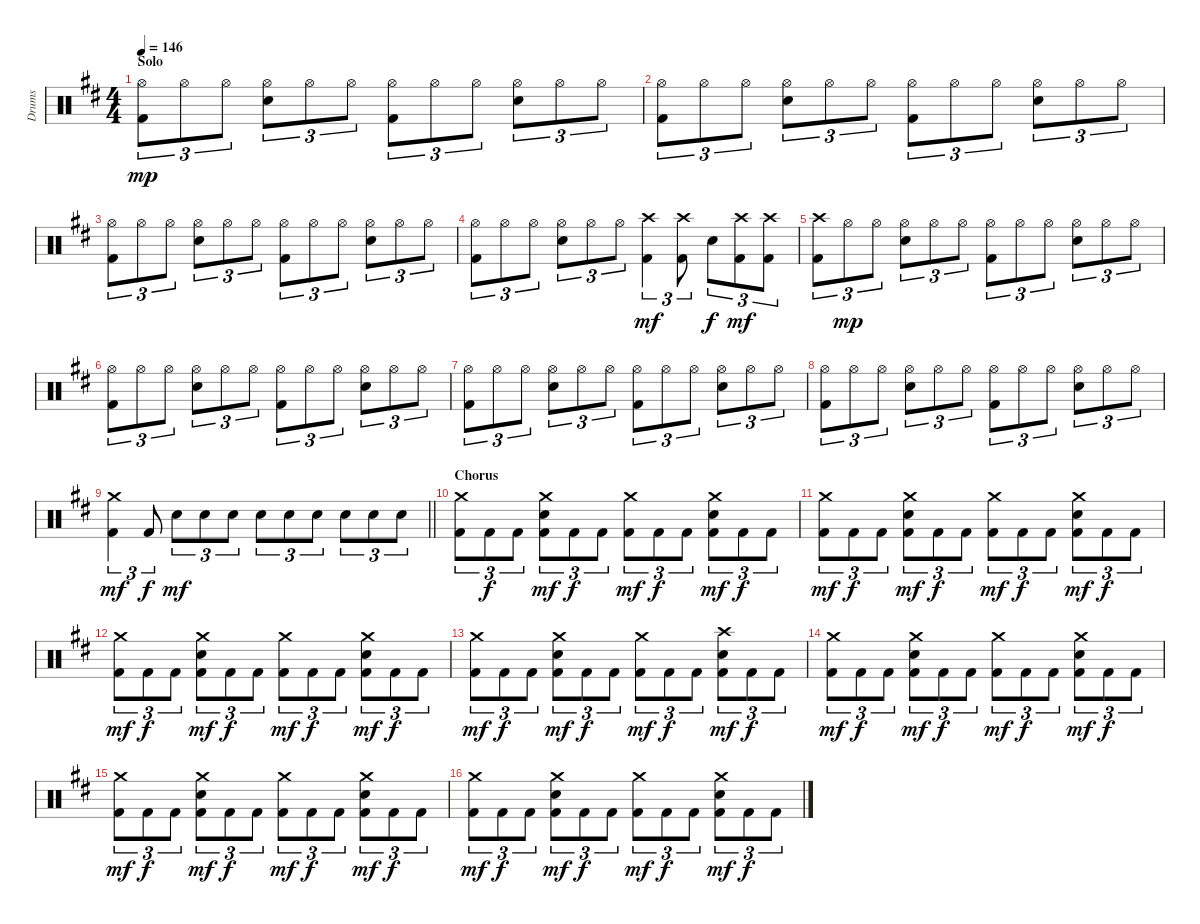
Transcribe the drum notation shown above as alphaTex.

\track ("Drums" "Drums") {instrument percussion}
\staff {score}
\articulation defaults
\ts (4 4)
\section ("" "Solo")
\tempo 146
\clef neutral
\ks bminor
("Hi-Hat (open)" "Kick (hit) 2").8{tu (3 2) dy mp} "Hi-Hat (open)".8{tu (3 2)} "Hi-Hat (open)".8{tu (3 2)} ("Hi-Hat (open)" "Electric Snare (hit)").8{tu (3 2)} "Hi-Hat (open)".8{tu (3 2)} "Hi-Hat (open)".8{tu (3 2)} ("Hi-Hat (open)" "Kick (hit) 2").8{tu (3 2)} "Hi-Hat (open)".8{tu (3 2)} "Hi-Hat (open)".8{tu (3 2)} ("Hi-Hat (open)" "Electric Snare (hit)").8{tu (3 2)} "Hi-Hat (open)".8{tu (3 2)} "Hi-Hat (open)".8{tu (3 2)} |
("Hi-Hat (open)" "Kick (hit) 2").8{tu (3 2)} "Hi-Hat (open)".8{tu (3 2)} "Hi-Hat (open)".8{tu (3 2)} ("Hi-Hat (open)" "Electric Snare (hit)").8{tu (3 2)} "Hi-Hat (open)".8{tu (3 2)} "Hi-Hat (open)".8{tu (3 2)} ("Hi-Hat (open)" "Kick (hit) 2").8{tu (3 2)} "Hi-Hat (open)".8{tu (3 2)} "Hi-Hat (open)".8{tu (3 2)} ("Hi-Hat (open)" "Electric Snare (hit)").8{tu (3 2)} "Hi-Hat (open)".8{tu (3 2)} "Hi-Hat (open)".8{tu (3 2)} |
("Hi-Hat (open)" "Kick (hit) 2").8{tu (3 2)} "Hi-Hat (open)".8{tu (3 2)} "Hi-Hat (open)".8{tu (3 2)} ("Hi-Hat (open)" "Electric Snare (hit)").8{tu (3 2)} "Hi-Hat (open)".8{tu (3 2)} "Hi-Hat (open)".8{tu (3 2)} ("Hi-Hat (open)" "Kick (hit) 2").8{tu (3 2)} "Hi-Hat (open)".8{tu (3 2)} "Hi-Hat (open)".8{tu (3 2)} ("Hi-Hat (open)" "Electric Snare (hit)").8{tu (3 2)} "Hi-Hat (open)".8{tu (3 2)} "Hi-Hat (open)".8{tu (3 2)} |
("Hi-Hat (open)" "Kick (hit) 2").8{tu (3 2)} "Hi-Hat (open)".8{tu (3 2)} "Hi-Hat (open)".8{tu (3 2)} ("Hi-Hat (open)" "Electric Snare (hit)").8{tu (3 2)} "Hi-Hat (open)".8{tu (3 2)} "Hi-Hat (open)".8{tu (3 2)} ("Crash high (hit)" "Kick (hit) 2").4{tu (3 2) dy mf} ("Crash high (hit)" "Kick (hit) 2").8{tu (3 2)} "Electric Snare (hit)".8{tu (3 2) dy f} ("Crash high (hit)" "Kick (hit) 2").8{tu (3 2) dy mf} ("Crash high (hit)" "Kick (hit) 2").8{tu (3 2)} |
("Crash high (hit)" "Kick (hit) 2").8{tu (3 2)} "Hi-Hat (open)".8{tu (3 2) dy mp} "Hi-Hat (open)".8{tu (3 2)} ("Hi-Hat (open)" "Electric Snare (hit)").8{tu (3 2)} "Hi-Hat (open)".8{tu (3 2)} "Hi-Hat (open)".8{tu (3 2)} ("Hi-Hat (open)" "Kick (hit) 2").8{tu (3 2)} "Hi-Hat (open)".8{tu (3 2)} "Hi-Hat (open)".8{tu (3 2)} ("Hi-Hat (open)" "Electric Snare (hit)").8{tu (3 2)} "Hi-Hat (open)".8{tu (3 2)} "Hi-Hat (open)".8{tu (3 2)} |
("Hi-Hat (open)" "Kick (hit) 2").8{tu (3 2)} "Hi-Hat (open)".8{tu (3 2)} "Hi-Hat (open)".8{tu (3 2)} ("Hi-Hat (open)" "Electric Snare (hit)").8{tu (3 2)} "Hi-Hat (open)".8{tu (3 2)} "Hi-Hat (open)".8{tu (3 2)} ("Hi-Hat (open)" "Kick (hit) 2").8{tu (3 2)} "Hi-Hat (open)".8{tu (3 2)} "Hi-Hat (open)".8{tu (3 2)} ("Hi-Hat (open)" "Electric Snare (hit)").8{tu (3 2)} "Hi-Hat (open)".8{tu (3 2)} "Hi-Hat (open)".8{tu (3 2)} |
("Hi-Hat (open)" "Kick (hit) 2").8{tu (3 2)} "Hi-Hat (open)".8{tu (3 2)} "Hi-Hat (open)".8{tu (3 2)} ("Hi-Hat (open)" "Electric Snare (hit)").8{tu (3 2)} "Hi-Hat (open)".8{tu (3 2)} "Hi-Hat (open)".8{tu (3 2)} ("Hi-Hat (open)" "Kick (hit) 2").8{tu (3 2)} "Hi-Hat (open)".8{tu (3 2)} "Hi-Hat (open)".8{tu (3 2)} ("Hi-Hat (open)" "Electric Snare (hit)").8{tu (3 2)} "Hi-Hat (open)".8{tu (3 2)} "Hi-Hat (open)".8{tu (3 2)} |
("Hi-Hat (open)" "Kick (hit) 2").8{tu (3 2)} "Hi-Hat (open)".8{tu (3 2)} "Hi-Hat (open)".8{tu (3 2)} ("Hi-Hat (open)" "Electric Snare (hit)").8{tu (3 2)} "Hi-Hat (open)".8{tu (3 2)} "Hi-Hat (open)".8{tu (3 2)} ("Hi-Hat (open)" "Kick (hit) 2").8{tu (3 2)} "Hi-Hat (open)".8{tu (3 2)} "Hi-Hat (open)".8{tu (3 2)} ("Hi-Hat (open)" "Electric Snare (hit)").8{tu (3 2)} "Hi-Hat (open)".8{tu (3 2)} "Hi-Hat (open)".8{tu (3 2)} |
\barLineRight lightlight
("Crash medium (hit)" "Kick (hit) 2").4{tu (3 2) dy mf} "Kick (hit) 2".8{tu (3 2) dy f} "Electric Snare (hit)".8{tu (3 2) dy mf} "Electric Snare (hit)".8{tu (3 2)} "Electric Snare (hit)".8{tu (3 2)} "Electric Snare (hit)".8{tu (3 2)} "Electric Snare (hit)".8{tu (3 2)} "Electric Snare (hit)".8{tu (3 2)} "Electric Snare (hit)".8{tu (3 2)} "Electric Snare (hit)".8{tu (3 2)} "Electric Snare (hit)".8{tu (3 2)} |
\section ("" "Chorus")
("Crash medium (hit)" "Kick (hit) 2").8{tu (3 2)} "Kick (hit) 2".8{tu (3 2) dy f} "Kick (hit) 2".8{tu (3 2)} ("Crash medium (hit)" "Electric Snare (hit)" "Kick (hit) 2").8{tu (3 2) dy mf} "Kick (hit) 2".8{tu (3 2) dy f} "Kick (hit) 2".8{tu (3 2)} ("Crash medium (hit)" "Kick (hit) 2").8{tu (3 2) dy mf} "Kick (hit) 2".8{tu (3 2) dy f} "Kick (hit) 2".8{tu (3 2)} ("Crash medium (hit)" "Electric Snare (hit)" "Kick (hit) 2").8{tu (3 2) dy mf} "Kick (hit) 2".8{tu (3 2) dy f} "Kick (hit) 2".8{tu (3 2)} |
("Crash medium (hit)" "Kick (hit) 2").8{tu (3 2) dy mf} "Kick (hit) 2".8{tu (3 2) dy f} "Kick (hit) 2".8{tu (3 2)} ("Crash medium (hit)" "Electric Snare (hit)" "Kick (hit) 2").8{tu (3 2) dy mf} "Kick (hit) 2".8{tu (3 2) dy f} "Kick (hit) 2".8{tu (3 2)} ("Crash medium (hit)" "Kick (hit) 2").8{tu (3 2) dy mf} "Kick (hit) 2".8{tu (3 2) dy f} "Kick (hit) 2".8{tu (3 2)} ("Crash medium (hit)" "Electric Snare (hit)" "Kick (hit) 2").8{tu (3 2) dy mf} "Kick (hit) 2".8{tu (3 2) dy f} "Kick (hit) 2".8{tu (3 2)} |
("Crash medium (hit)" "Kick (hit) 2").8{tu (3 2) dy mf} "Kick (hit) 2".8{tu (3 2) dy f} "Kick (hit) 2".8{tu (3 2)} ("Crash medium (hit)" "Electric Snare (hit)" "Kick (hit) 2").8{tu (3 2) dy mf} "Kick (hit) 2".8{tu (3 2) dy f} "Kick (hit) 2".8{tu (3 2)} ("Crash medium (hit)" "Kick (hit) 2").8{tu (3 2) dy mf} "Kick (hit) 2".8{tu (3 2) dy f} "Kick (hit) 2".8{tu (3 2)} ("Crash medium (hit)" "Electric Snare (hit)" "Kick (hit) 2").8{tu (3 2) dy mf} "Kick (hit) 2".8{tu (3 2) dy f} "Kick (hit) 2".8{tu (3 2)} |
("Crash medium (hit)" "Kick (hit) 2").8{tu (3 2) dy mf} "Kick (hit) 2".8{tu (3 2) dy f} "Kick (hit) 2".8{tu (3 2)} ("Crash medium (hit)" "Electric Snare (hit)" "Kick (hit) 2").8{tu (3 2) dy mf} "Kick (hit) 2".8{tu (3 2) dy f} "Kick (hit) 2".8{tu (3 2)} ("Crash medium (hit)" "Kick (hit) 2").8{tu (3 2) dy mf} "Kick (hit) 2".8{tu (3 2) dy f} "Kick (hit) 2".8{tu (3 2)} ("Crash high (hit)" "Electric Snare (hit)" "Kick (hit) 2").8{tu (3 2) dy mf} "Kick (hit) 2".8{tu (3 2) dy f} "Kick (hit) 2".8{tu (3 2)} |
("Crash medium (hit)" "Kick (hit) 2").8{tu (3 2) dy mf} "Kick (hit) 2".8{tu (3 2) dy f} "Kick (hit) 2".8{tu (3 2)} ("Crash medium (hit)" "Electric Snare (hit)" "Kick (hit) 2").8{tu (3 2) dy mf} "Kick (hit) 2".8{tu (3 2) dy f} "Kick (hit) 2".8{tu (3 2)} ("Crash medium (hit)" "Kick (hit) 2").8{tu (3 2) dy mf} "Kick (hit) 2".8{tu (3 2) dy f} "Kick (hit) 2".8{tu (3 2)} ("Crash medium (hit)" "Electric Snare (hit)" "Kick (hit) 2").8{tu (3 2) dy mf} "Kick (hit) 2".8{tu (3 2) dy f} "Kick (hit) 2".8{tu (3 2)} |
("Crash medium (hit)" "Kick (hit) 2").8{tu (3 2) dy mf} "Kick (hit) 2".8{tu (3 2) dy f} "Kick (hit) 2".8{tu (3 2)} ("Crash medium (hit)" "Electric Snare (hit)" "Kick (hit) 2").8{tu (3 2) dy mf} "Kick (hit) 2".8{tu (3 2) dy f} "Kick (hit) 2".8{tu (3 2)} ("Crash medium (hit)" "Kick (hit) 2").8{tu (3 2) dy mf} "Kick (hit) 2".8{tu (3 2) dy f} "Kick (hit) 2".8{tu (3 2)} ("Crash medium (hit)" "Electric Snare (hit)" "Kick (hit) 2").8{tu (3 2) dy mf} "Kick (hit) 2".8{tu (3 2) dy f} "Kick (hit) 2".8{tu (3 2)} |
("Crash medium (hit)" "Kick (hit) 2").8{tu (3 2) dy mf} "Kick (hit) 2".8{tu (3 2) dy f} "Kick (hit) 2".8{tu (3 2)} ("Crash medium (hit)" "Electric Snare (hit)" "Kick (hit) 2").8{tu (3 2) dy mf} "Kick (hit) 2".8{tu (3 2) dy f} "Kick (hit) 2".8{tu (3 2)} ("Crash medium (hit)" "Kick (hit) 2").8{tu (3 2) dy mf} "Kick (hit) 2".8{tu (3 2) dy f} "Kick (hit) 2".8{tu (3 2)} ("Crash medium (hit)" "Electric Snare (hit)" "Kick (hit) 2").8{tu (3 2) dy mf} "Kick (hit) 2".8{tu (3 2) dy f} "Kick (hit) 2".8{tu (3 2)}
